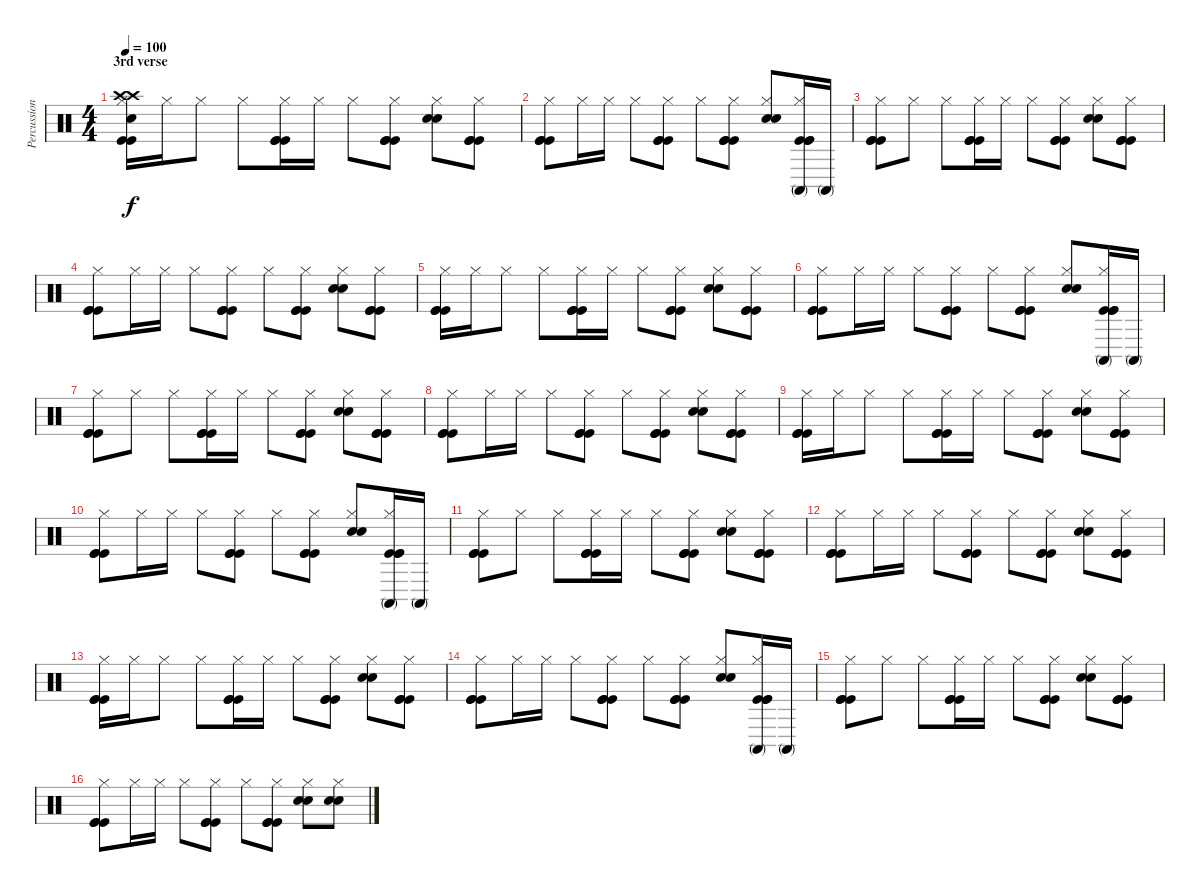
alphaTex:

\track ("Percussion" "Percussion") {instrument percussion}
\staff {score}
\articulation defaults
\ts (4 4)
\section ("" "3rd verse")
\tempo 100
\clef neutral
\ks c
("Hi-Hat (closed)" "Crash high (hit)" "Crash high (hit)" "Electric Snare (hit)" "Kick (hit)" "Kick (hit)").16{dy f} "Hi-Hat (closed)".16 "Hi-Hat (closed)".8 "Hi-Hat (closed)".8 ("Hi-Hat (closed)" "Kick (hit)" "Kick (hit)" "Kick (hit)").16 "Hi-Hat (closed)".16 "Hi-Hat (closed)".8 ("Hi-Hat (closed)" "Kick (hit)" "Kick (hit)" "Kick (hit)").8 ("Hi-Hat (closed)" "Electric Snare (hit)" "Electric Snare (hit)").8 ("Hi-Hat (closed)" "Kick (hit)" "Kick (hit)" "Kick (hit)").8 |
("Hi-Hat (closed)" "Kick (hit)" "Kick (hit)" "Kick (hit)").8 "Hi-Hat (closed)".16 "Hi-Hat (closed)".16 "Hi-Hat (closed)".8 ("Hi-Hat (closed)" "Kick (hit)" "Kick (hit)" "Kick (hit)").8 "Hi-Hat (closed)".8 ("Hi-Hat (closed)" "Kick (hit)" "Kick (hit)" "Kick (hit)").8 ("Hi-Hat (closed)" "Electric Snare (hit)" "Electric Snare (hit)").8 ("Hi-Hat (closed)" "Conga high (mute)" "Kick (hit)" "Kick (hit)" "Kick (hit)").16 "Conga high (mute)".16 |
("Hi-Hat (closed)" "Kick (hit)" "Kick (hit)" "Kick (hit)").8 "Hi-Hat (closed)".8 "Hi-Hat (closed)".8 ("Hi-Hat (closed)" "Kick (hit)" "Kick (hit)" "Kick (hit)").16 "Hi-Hat (closed)".16 "Hi-Hat (closed)".8 ("Hi-Hat (closed)" "Kick (hit)" "Kick (hit)" "Kick (hit)").8 ("Hi-Hat (closed)" "Electric Snare (hit)" "Electric Snare (hit)").8 ("Hi-Hat (closed)" "Kick (hit)" "Kick (hit)" "Kick (hit)").8 |
("Hi-Hat (closed)" "Kick (hit)" "Kick (hit)" "Kick (hit)").8 "Hi-Hat (closed)".16 "Hi-Hat (closed)".16 "Hi-Hat (closed)".8 ("Hi-Hat (closed)" "Kick (hit)" "Kick (hit)" "Kick (hit)").8 "Hi-Hat (closed)".8 ("Hi-Hat (closed)" "Kick (hit)" "Kick (hit)" "Kick (hit)").8 ("Hi-Hat (closed)" "Electric Snare (hit)" "Electric Snare (hit)").8 ("Hi-Hat (closed)" "Kick (hit)" "Kick (hit)" "Kick (hit)").8 |
("Hi-Hat (closed)" "Kick (hit)" "Kick (hit)" "Kick (hit)").16 "Hi-Hat (closed)".16 "Hi-Hat (closed)".8 "Hi-Hat (closed)".8 ("Hi-Hat (closed)" "Kick (hit)" "Kick (hit)" "Kick (hit)").16 "Hi-Hat (closed)".16 "Hi-Hat (closed)".8 ("Hi-Hat (closed)" "Kick (hit)" "Kick (hit)" "Kick (hit)").8 ("Hi-Hat (closed)" "Electric Snare (hit)" "Electric Snare (hit)").8 ("Hi-Hat (closed)" "Kick (hit)" "Kick (hit)" "Kick (hit)").8 |
("Hi-Hat (closed)" "Kick (hit)" "Kick (hit)" "Kick (hit)").8 "Hi-Hat (closed)".16 "Hi-Hat (closed)".16 "Hi-Hat (closed)".8 ("Hi-Hat (closed)" "Kick (hit)" "Kick (hit)" "Kick (hit)").8 "Hi-Hat (closed)".8 ("Hi-Hat (closed)" "Kick (hit)" "Kick (hit)" "Kick (hit)").8 ("Hi-Hat (closed)" "Electric Snare (hit)" "Electric Snare (hit)").8 ("Hi-Hat (closed)" "Conga high (mute)" "Kick (hit)" "Kick (hit)" "Kick (hit)").16 "Conga high (mute)".16 |
("Hi-Hat (closed)" "Kick (hit)" "Kick (hit)" "Kick (hit)").8 "Hi-Hat (closed)".8 "Hi-Hat (closed)".8 ("Hi-Hat (closed)" "Kick (hit)" "Kick (hit)" "Kick (hit)").16 "Hi-Hat (closed)".16 "Hi-Hat (closed)".8 ("Hi-Hat (closed)" "Kick (hit)" "Kick (hit)" "Kick (hit)").8 ("Hi-Hat (closed)" "Electric Snare (hit)" "Electric Snare (hit)").8 ("Hi-Hat (closed)" "Kick (hit)" "Kick (hit)" "Kick (hit)").8 |
("Hi-Hat (closed)" "Kick (hit)" "Kick (hit)" "Kick (hit)").8 "Hi-Hat (closed)".16 "Hi-Hat (closed)".16 "Hi-Hat (closed)".8 ("Hi-Hat (closed)" "Kick (hit)" "Kick (hit)" "Kick (hit)").8 "Hi-Hat (closed)".8 ("Hi-Hat (closed)" "Kick (hit)" "Kick (hit)" "Kick (hit)").8 ("Hi-Hat (closed)" "Electric Snare (hit)" "Electric Snare (hit)").8 ("Hi-Hat (closed)" "Kick (hit)" "Kick (hit)" "Kick (hit)").8 |
("Hi-Hat (closed)" "Kick (hit)" "Kick (hit)" "Kick (hit)").16 "Hi-Hat (closed)".16 "Hi-Hat (closed)".8 "Hi-Hat (closed)".8 ("Hi-Hat (closed)" "Kick (hit)" "Kick (hit)" "Kick (hit)").16 "Hi-Hat (closed)".16 "Hi-Hat (closed)".8 ("Hi-Hat (closed)" "Kick (hit)" "Kick (hit)" "Kick (hit)").8 ("Hi-Hat (closed)" "Electric Snare (hit)" "Electric Snare (hit)").8 ("Hi-Hat (closed)" "Kick (hit)" "Kick (hit)" "Kick (hit)").8 |
("Hi-Hat (closed)" "Kick (hit)" "Kick (hit)" "Kick (hit)").8 "Hi-Hat (closed)".16 "Hi-Hat (closed)".16 "Hi-Hat (closed)".8 ("Hi-Hat (closed)" "Kick (hit)" "Kick (hit)" "Kick (hit)").8 "Hi-Hat (closed)".8 ("Hi-Hat (closed)" "Kick (hit)" "Kick (hit)" "Kick (hit)").8 ("Hi-Hat (closed)" "Electric Snare (hit)" "Electric Snare (hit)").8 ("Hi-Hat (closed)" "Conga high (mute)" "Kick (hit)" "Kick (hit)" "Kick (hit)").16 "Conga high (mute)".16 |
("Hi-Hat (closed)" "Kick (hit)" "Kick (hit)" "Kick (hit)").8 "Hi-Hat (closed)".8 "Hi-Hat (closed)".8 ("Hi-Hat (closed)" "Kick (hit)" "Kick (hit)" "Kick (hit)").16 "Hi-Hat (closed)".16 "Hi-Hat (closed)".8 ("Hi-Hat (closed)" "Kick (hit)" "Kick (hit)" "Kick (hit)").8 ("Hi-Hat (closed)" "Electric Snare (hit)" "Electric Snare (hit)").8 ("Hi-Hat (closed)" "Kick (hit)" "Kick (hit)" "Kick (hit)").8 |
("Hi-Hat (closed)" "Kick (hit)" "Kick (hit)" "Kick (hit)").8 "Hi-Hat (closed)".16 "Hi-Hat (closed)".16 "Hi-Hat (closed)".8 ("Hi-Hat (closed)" "Kick (hit)" "Kick (hit)" "Kick (hit)").8 "Hi-Hat (closed)".8 ("Hi-Hat (closed)" "Kick (hit)" "Kick (hit)" "Kick (hit)").8 ("Hi-Hat (closed)" "Electric Snare (hit)" "Electric Snare (hit)").8 ("Hi-Hat (closed)" "Kick (hit)" "Kick (hit)" "Kick (hit)").8 |
("Hi-Hat (closed)" "Kick (hit)" "Kick (hit)" "Kick (hit)").16 "Hi-Hat (closed)".16 "Hi-Hat (closed)".8 "Hi-Hat (closed)".8 ("Hi-Hat (closed)" "Kick (hit)" "Kick (hit)" "Kick (hit)").16 "Hi-Hat (closed)".16 "Hi-Hat (closed)".8 ("Hi-Hat (closed)" "Kick (hit)" "Kick (hit)" "Kick (hit)").8 ("Hi-Hat (closed)" "Electric Snare (hit)" "Electric Snare (hit)").8 ("Hi-Hat (closed)" "Kick (hit)" "Kick (hit)" "Kick (hit)").8 |
("Hi-Hat (closed)" "Kick (hit)" "Kick (hit)" "Kick (hit)").8 "Hi-Hat (closed)".16 "Hi-Hat (closed)".16 "Hi-Hat (closed)".8 ("Hi-Hat (closed)" "Kick (hit)" "Kick (hit)" "Kick (hit)").8 "Hi-Hat (closed)".8 ("Hi-Hat (closed)" "Kick (hit)" "Kick (hit)" "Kick (hit)").8 ("Hi-Hat (closed)" "Electric Snare (hit)" "Electric Snare (hit)").8 ("Hi-Hat (closed)" "Conga high (mute)" "Kick (hit)" "Kick (hit)" "Kick (hit)").16 "Conga high (mute)".16 |
("Hi-Hat (closed)" "Kick (hit)" "Kick (hit)" "Kick (hit)").8 "Hi-Hat (closed)".8 "Hi-Hat (closed)".8 ("Hi-Hat (closed)" "Kick (hit)" "Kick (hit)" "Kick (hit)").16 "Hi-Hat (closed)".16 "Hi-Hat (closed)".8 ("Hi-Hat (closed)" "Kick (hit)" "Kick (hit)" "Kick (hit)").8 ("Hi-Hat (closed)" "Electric Snare (hit)" "Electric Snare (hit)").8 ("Hi-Hat (closed)" "Kick (hit)" "Kick (hit)" "Kick (hit)").8 |
("Hi-Hat (closed)" "Kick (hit)" "Kick (hit)" "Kick (hit)").8 "Hi-Hat (closed)".16 "Hi-Hat (closed)".16 "Hi-Hat (closed)".8 ("Hi-Hat (closed)" "Kick (hit)" "Kick (hit)" "Kick (hit)").8 "Hi-Hat (closed)".8 ("Hi-Hat (closed)" "Kick (hit)" "Kick (hit)" "Kick (hit)").8 ("Hi-Hat (closed)" "Electric Snare (hit)" "Electric Snare (hit)").8 ("Hi-Hat (closed)" "Electric Snare (hit)" "Electric Snare (hit)").8
